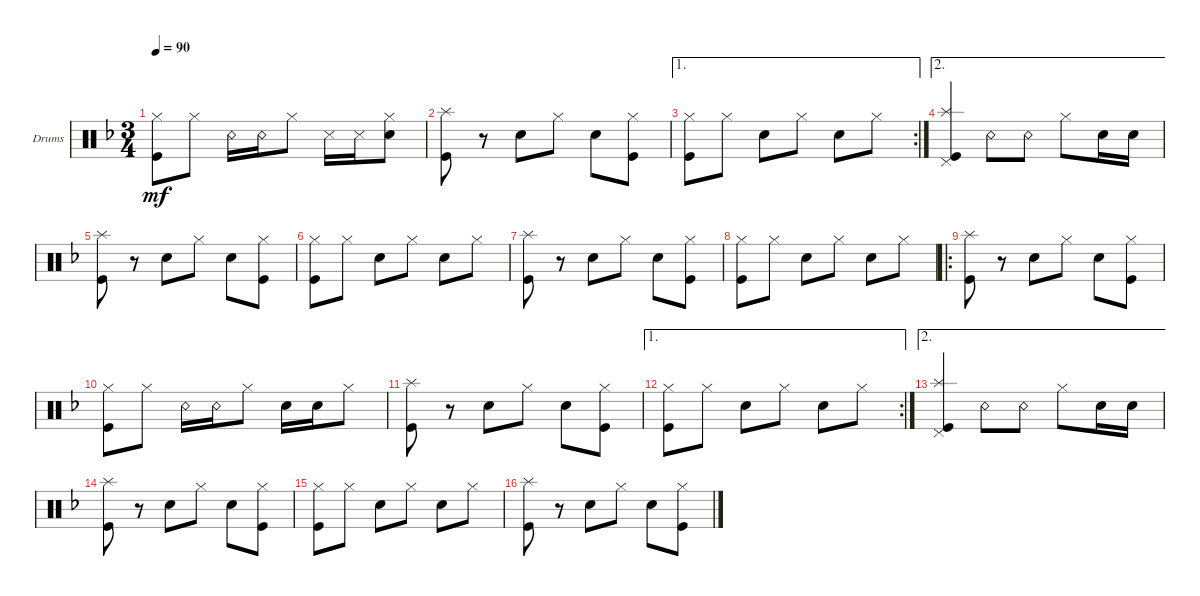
\defaultSystemsLayout 4
\bracketExtendMode groupsimilarinstruments
\firstSystemTrackNameOrientation horizontal
\otherSystemsTrackNameOrientation horizontal
\track ("Drumkit" "Drums") {instrument percussion}
\staff {score}
\articulation defaults
\ts (3 4)
\tempo 90
\clef neutral
\ks dminor
("Kick (hit)" "Hi-Hat (closed)").8{dy mf} "Hi-Hat (closed)".8 "Snare (rim shot)".16 "Snare (rim shot)".16 "Hi-Hat (closed)".8 "Snare (side stick) 3".16 "Snare (side stick) 3".16 ("Hi-Hat (closed)" "Snare (hit) 2").8 |
("Kick (hit)" "Splash (hit)").8 r.8 "Snare (hit) 2".8 "Hi-Hat (closed)".8 "Snare (hit) 2".8 ("Hi-Hat (closed)" "Kick (hit)").8 |
\ae 1
\rc 2
("Kick (hit)" "Hi-Hat (closed)").8 "Hi-Hat (closed)".8 "Snare (hit) 2".8 "Hi-Hat (closed)".8 "Snare (hit) 2".8 "Hi-Hat (closed)".8 |
\ae 2
("Kick (hit)" "Splash (hit)" "Pedal Hi-Hat (hit)").4 "Snare (rim shot)".8 "Snare (rim shot)".8 "Hi-Hat (closed)".8 "Snare (hit) 2".16 "Snare (hit) 2".16 |
("Kick (hit)" "Splash (hit)").8 r.8 "Snare (hit) 2".8 "Hi-Hat (closed)".8 "Snare (hit) 2".8 ("Hi-Hat (closed)" "Kick (hit)").8 |
("Kick (hit)" "Hi-Hat (closed)").8 "Hi-Hat (closed)".8 "Snare (hit) 2".8 "Hi-Hat (closed)".8 "Snare (hit) 2".8 "Hi-Hat (closed)".8 |
("Kick (hit)" "Splash (hit)").8 r.8 "Snare (hit) 2".8 "Hi-Hat (closed)".8 "Snare (hit) 2".8 ("Hi-Hat (closed)" "Kick (hit)").8 |
("Kick (hit)" "Hi-Hat (closed)").8 "Hi-Hat (closed)".8 "Snare (hit) 2".8 "Hi-Hat (closed)".8 "Snare (hit) 2".8 "Hi-Hat (closed)".8 |
\ro
("Kick (hit)" "Splash (hit)").8 r.8 "Snare (hit) 2".8 "Hi-Hat (closed)".8 "Snare (hit) 2".8 ("Hi-Hat (closed)" "Kick (hit)").8 |
("Kick (hit)" "Hi-Hat (closed)").8 "Hi-Hat (closed)".8 "Snare (rim shot)".16 "Snare (rim shot)".16 "Hi-Hat (closed)".8 "Snare (hit) 2".16 "Snare (hit) 2".16 "Hi-Hat (closed)".8 |
("Kick (hit)" "Splash (hit)").8 r.8 "Snare (hit) 2".8 "Hi-Hat (closed)".8 "Snare (hit) 2".8 ("Hi-Hat (closed)" "Kick (hit)").8 |
\ae 1
\rc 2
("Kick (hit)" "Hi-Hat (closed)").8 "Hi-Hat (closed)".8 "Snare (hit) 2".8 "Hi-Hat (closed)".8 "Snare (hit) 2".8 "Hi-Hat (closed)".8 |
\ae 2
("Kick (hit)" "Splash (hit)" "Pedal Hi-Hat (hit)").4 "Snare (rim shot)".8 "Snare (rim shot)".8 "Hi-Hat (closed)".8 "Snare (hit) 2".16 "Snare (hit) 2".16 |
("Kick (hit)" "Splash (hit)").8 r.8 "Snare (hit) 2".8 "Hi-Hat (closed)".8 "Snare (hit) 2".8 ("Hi-Hat (closed)" "Kick (hit)").8 |
("Kick (hit)" "Hi-Hat (closed)").8 "Hi-Hat (closed)".8 "Snare (hit) 2".8 "Hi-Hat (closed)".8 "Snare (hit) 2".8 "Hi-Hat (closed)".8 |
("Kick (hit)" "Splash (hit)").8 r.8 "Snare (hit) 2".8 "Hi-Hat (closed)".8 "Snare (hit) 2".8 ("Hi-Hat (closed)" "Kick (hit)").8
